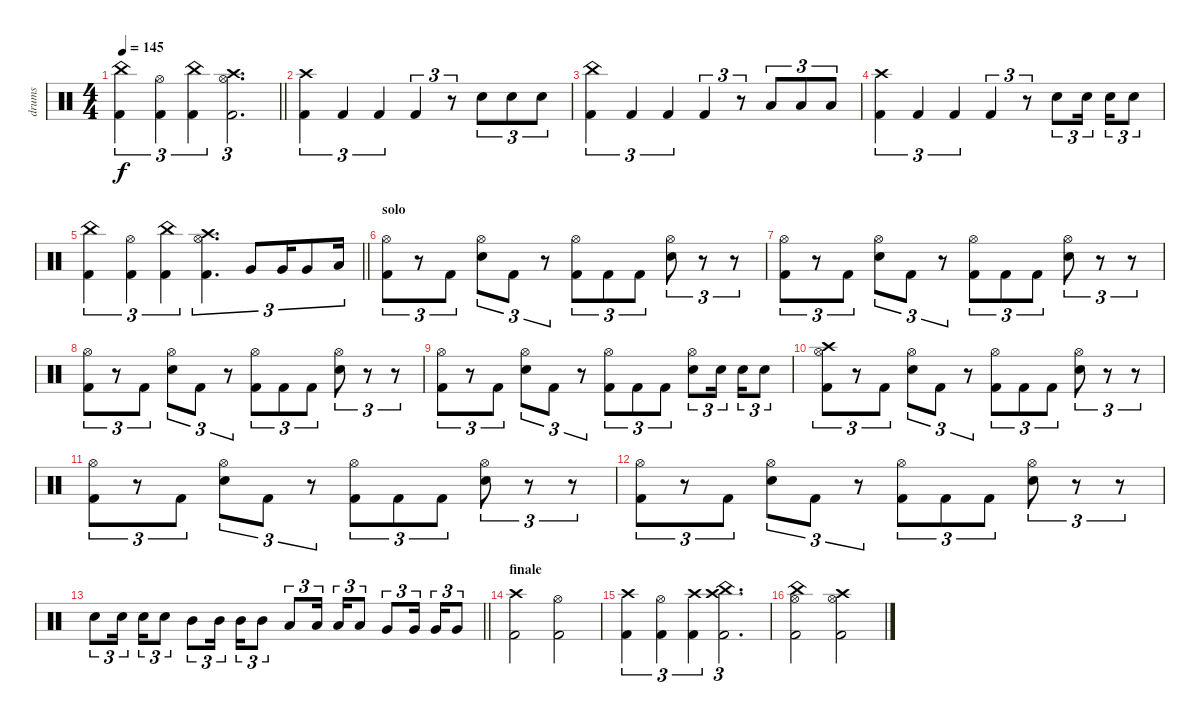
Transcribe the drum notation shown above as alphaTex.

\track ("drums" "drums") {instrument percussion}
\staff {score}
\articulation defaults
\ts (4 4)
\tempo 145
\clef neutral
\barLineRight lightlight
\ks c
("China (hit)" "Kick (hit) 2").4{tu (3 2) dy f} ("Hi-Hat (open)" "Kick (hit) 2").4{tu (3 2)} ("China (hit)" "Kick (hit) 2").4{tu (3 2)} ("Hi-Hat (open)" "Crash high (hit)" "Kick (hit) 2").2{d tu (3 2)} |
("Crash high (hit)" "Kick (hit) 2").4{tu (3 2)} "Kick (hit) 2".4{tu (3 2)} "Kick (hit) 2".4{tu (3 2)} "Kick (hit) 2".4{tu (3 2)} r.8{tu (3 2)} "Snare (hit) 2".8{tu (3 2)} "Snare (hit) 2".8{tu (3 2)} "Snare (hit) 2".8{tu (3 2)} |
("China (hit)" "Kick (hit) 2").4{tu (3 2)} "Kick (hit) 2".4{tu (3 2)} "Kick (hit) 2".4{tu (3 2)} "Kick (hit) 2".4{tu (3 2)} r.8{tu (3 2)} "Low Tom (hit)".8{tu (3 2)} "Low Tom (hit)".8{tu (3 2)} "Low Tom (hit)".8{tu (3 2)} |
("Crash high (hit)" "Kick (hit) 2").4{tu (3 2)} "Kick (hit) 2".4{tu (3 2)} "Kick (hit) 2".4{tu (3 2)} "Kick (hit) 2".4{tu (3 2)} r.8{tu (3 2)} "Snare (hit) 2".8{tu (3 2)} "Snare (hit) 2".16{tu (3 2) beam splitsecondary} "Snare (hit) 2".16{tu (3 2)} "Snare (hit) 2".8{tu (3 2)} |
\barLineRight lightlight
("China (hit)" "Kick (hit) 2").4{tu (3 2)} ("Hi-Hat (open)" "Kick (hit) 2").4{tu (3 2)} ("China (hit)" "Kick (hit) 2").4{tu (3 2)} ("Hi-Hat (open)" "Crash high (hit)" "Kick (hit) 2").4{d tu (3 2)} "Very Low Tom (hit)".8{tu (3 2)} "Very Low Tom (hit)".16{tu (3 2)} "Very Low Tom (hit)".8{tu (3 2)} "Low Tom (hit)".16{tu (3 2)} |
\section ("" "solo")
("Hi-Hat (open)" "Kick (hit) 2").8{tu (3 2)} r.8{tu (3 2)} "Kick (hit) 2".8{tu (3 2)} ("Snare (hit) 2" "Hi-Hat (open)").8{tu (3 2)} "Kick (hit) 2".8{tu (3 2)} r.8{tu (3 2)} ("Hi-Hat (open)" "Kick (hit) 2").8{tu (3 2)} "Kick (hit) 2".8{tu (3 2)} "Kick (hit) 2".8{tu (3 2)} ("Snare (hit) 2" "Hi-Hat (open)").8{tu (3 2)} r.8{tu (3 2)} r.8{tu (3 2)} |
("Hi-Hat (open)" "Kick (hit) 2").8{tu (3 2)} r.8{tu (3 2)} "Kick (hit) 2".8{tu (3 2)} ("Snare (hit) 2" "Hi-Hat (open)").8{tu (3 2)} "Kick (hit) 2".8{tu (3 2)} r.8{tu (3 2)} ("Hi-Hat (open)" "Kick (hit) 2").8{tu (3 2)} "Kick (hit) 2".8{tu (3 2)} "Kick (hit) 2".8{tu (3 2)} ("Snare (hit) 2" "Hi-Hat (open)").8{tu (3 2)} r.8{tu (3 2)} r.8{tu (3 2)} |
("Hi-Hat (open)" "Kick (hit) 2").8{tu (3 2)} r.8{tu (3 2)} "Kick (hit) 2".8{tu (3 2)} ("Snare (hit) 2" "Hi-Hat (open)").8{tu (3 2)} "Kick (hit) 2".8{tu (3 2)} r.8{tu (3 2)} ("Hi-Hat (open)" "Kick (hit) 2").8{tu (3 2)} "Kick (hit) 2".8{tu (3 2)} "Kick (hit) 2".8{tu (3 2)} ("Snare (hit) 2" "Hi-Hat (open)").8{tu (3 2)} r.8{tu (3 2)} r.8{tu (3 2)} |
("Hi-Hat (open)" "Kick (hit) 2").8{tu (3 2)} r.8{tu (3 2)} "Kick (hit) 2".8{tu (3 2)} ("Snare (hit) 2" "Hi-Hat (open)").8{tu (3 2)} "Kick (hit) 2".8{tu (3 2)} r.8{tu (3 2)} ("Hi-Hat (open)" "Kick (hit) 2").8{tu (3 2)} "Kick (hit) 2".8{tu (3 2)} "Kick (hit) 2".8{tu (3 2)} ("Snare (hit) 2" "Hi-Hat (open)").8{tu (3 2)} "Snare (hit) 2".16{tu (3 2) beam splitsecondary} "Snare (hit) 2".16{tu (3 2)} "Snare (hit) 2".8{tu (3 2)} |
("Crash high (hit)" "Hi-Hat (open)" "Kick (hit) 2").8{tu (3 2)} r.8{tu (3 2)} "Kick (hit) 2".8{tu (3 2)} ("Snare (hit) 2" "Hi-Hat (open)").8{tu (3 2)} "Kick (hit) 2".8{tu (3 2)} r.8{tu (3 2)} ("Hi-Hat (open)" "Kick (hit) 2").8{tu (3 2)} "Kick (hit) 2".8{tu (3 2)} "Kick (hit) 2".8{tu (3 2)} ("Snare (hit) 2" "Hi-Hat (open)").8{tu (3 2)} r.8{tu (3 2)} r.8{tu (3 2)} |
("Hi-Hat (open)" "Kick (hit) 2").8{tu (3 2)} r.8{tu (3 2)} "Kick (hit) 2".8{tu (3 2)} ("Snare (hit) 2" "Hi-Hat (open)").8{tu (3 2)} "Kick (hit) 2".8{tu (3 2)} r.8{tu (3 2)} ("Hi-Hat (open)" "Kick (hit) 2").8{tu (3 2)} "Kick (hit) 2".8{tu (3 2)} "Kick (hit) 2".8{tu (3 2)} ("Snare (hit) 2" "Hi-Hat (open)").8{tu (3 2)} r.8{tu (3 2)} r.8{tu (3 2)} |
("Hi-Hat (open)" "Kick (hit) 2").8{tu (3 2)} r.8{tu (3 2)} "Kick (hit) 2".8{tu (3 2)} ("Snare (hit) 2" "Hi-Hat (open)").8{tu (3 2)} "Kick (hit) 2".8{tu (3 2)} r.8{tu (3 2)} ("Hi-Hat (open)" "Kick (hit) 2").8{tu (3 2)} "Kick (hit) 2".8{tu (3 2)} "Kick (hit) 2".8{tu (3 2)} ("Snare (hit) 2" "Hi-Hat (open)").8{tu (3 2)} r.8{tu (3 2)} r.8{tu (3 2)} |
\barLineRight lightlight "Snare (hit) 2".8{tu (3 2)} "Snare (hit) 2".16{tu (3 2) beam splitsecondary} "Snare (hit) 2".16{tu (3 2)} "Snare (hit) 2".8{tu (3 2)} "Mid Tom (hit)".8{tu (3 2)} "Mid Tom (hit)".16{tu (3 2) beam splitsecondary} "Mid Tom (hit)".16{tu (3 2)} "Mid Tom (hit)".8{tu (3 2)} "Low Tom (hit)".8{tu (3 2)} "Low Tom (hit)".16{tu (3 2) beam splitsecondary} "Low Tom (hit)".16{tu (3 2)} "Low Tom (hit)".8{tu (3 2)} "Very Low Tom (hit)".8{tu (3 2)} "Very Low Tom (hit)".16{tu (3 2) beam splitsecondary} "Very Low Tom (hit)".16{tu (3 2)} "Very Low Tom (hit)".8{tu (3 2)}
|
\section ("" "finale")
("Crash high (hit)" "Kick (hit) 2").2 ("Hi-Hat (open)" "Kick (hit) 2").2 |
("Crash high (hit)" "Kick (hit) 2").4{tu (3 2)} ("Hi-Hat (open)" "Kick (hit) 2").4{tu (3 2)} ("Crash high (hit)" "Kick (hit) 2").4{tu (3 2)} ("China (hit)" "Crash high (hit)" "Kick (hit) 2").2{d tu (3 2)} |
("China (hit)" "Hi-Hat (open)" "Kick (hit) 2").2 ("Crash high (hit)" "Hi-Hat (open)" "Kick (hit) 2").2
